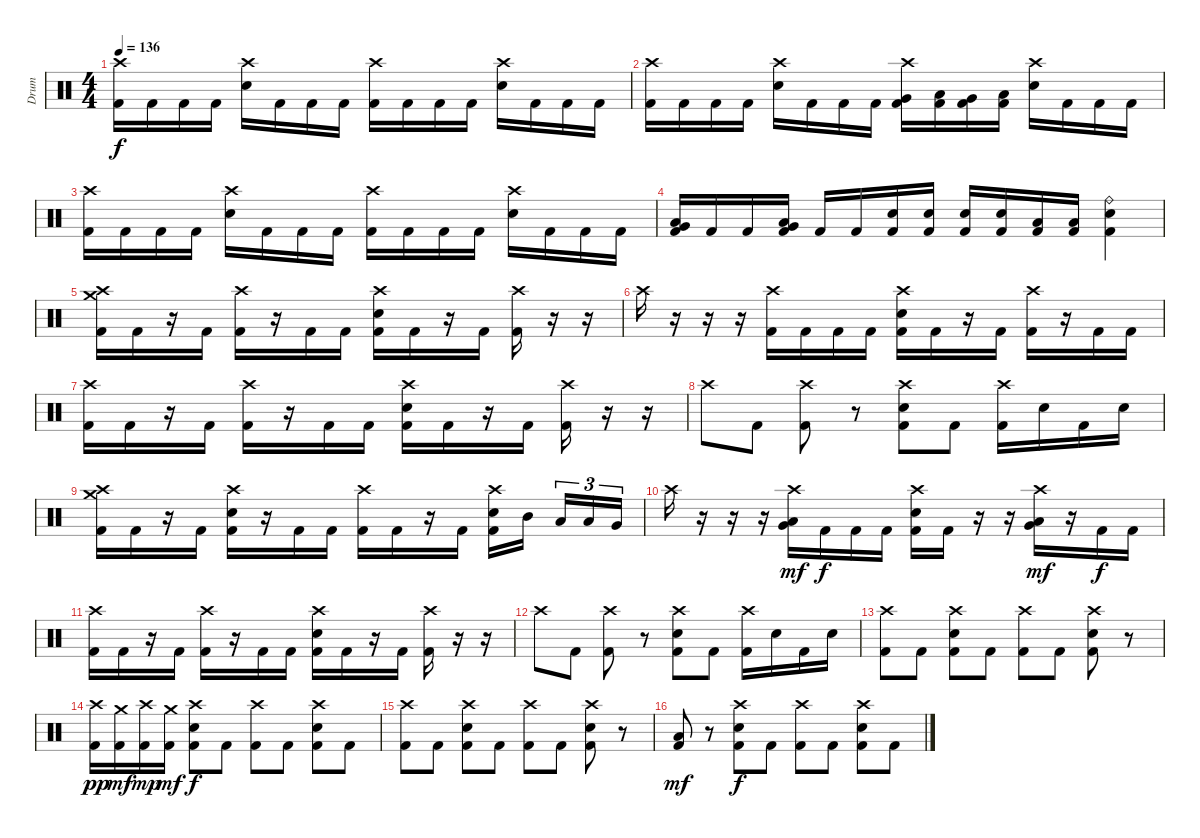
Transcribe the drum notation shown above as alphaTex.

\track ("Drum" "Drum") {instrument percussion}
\staff {score}
\articulation defaults
\ts (4 4)
\tempo 136
\clef neutral
\ks c
("Crash high (hit)" "Kick (hit) 2").16{dy f} "Kick (hit) 2".16 "Kick (hit) 2".16 "Kick (hit) 2".16 ("Crash high (hit)" "Electric Snare (hit)").16 "Kick (hit) 2".16 "Kick (hit) 2".16 "Kick (hit) 2".16 ("Crash high (hit)" "Kick (hit) 2").16 "Kick (hit) 2".16 "Kick (hit) 2".16 "Kick (hit) 2".16 ("Crash high (hit)" "Electric Snare (hit)").16 "Kick (hit) 2".16 "Kick (hit) 2".16 "Kick (hit) 2".16 |
("Crash high (hit)" "Kick (hit) 2").16 "Kick (hit) 2".16 "Kick (hit) 2".16 "Kick (hit) 2".16 ("Crash high (hit)" "Electric Snare (hit)").16 "Kick (hit) 2".16 "Kick (hit) 2".16 "Kick (hit) 2".16 ("Crash high (hit)" "Very Low Tom (hit)" "Kick (hit) 2").16 ("Low Floor Tom (hit)" "Kick (hit) 2").16 ("Very Low Tom (hit)" "Kick (hit) 2").16 ("Low Floor Tom (hit)" "Kick (hit) 2").16 ("Crash high (hit)" "Electric Snare (hit)").16 "Kick (hit) 2".16 "Kick (hit) 2".16 "Kick (hit) 2".16 |
("Crash high (hit)" "Kick (hit) 2").16 "Kick (hit) 2".16 "Kick (hit) 2".16 "Kick (hit) 2".16 ("Crash high (hit)" "Electric Snare (hit)").16 "Kick (hit) 2".16 "Kick (hit) 2".16 "Kick (hit) 2".16 ("Crash high (hit)" "Kick (hit) 2").16 "Kick (hit) 2".16 "Kick (hit) 2".16 "Kick (hit) 2".16 ("Crash high (hit)" "Electric Snare (hit)").16 "Kick (hit) 2".16 "Kick (hit) 2".16 "Kick (hit) 2".16 |
("Low Tom (hit)" "Very Low Tom (hit)" "Kick (hit) 2").16 "Kick (hit) 2".16 "Kick (hit) 2".16 ("Low Floor Tom (hit)" "Very Low Tom (hit)" "Kick (hit) 2").16 "Kick (hit) 2".16 "Kick (hit) 2".16 ("Electric Snare (hit)" "Kick (hit) 2").16 ("Electric Snare (hit)" "Kick (hit) 2").16 ("Electric Snare (hit)" "Kick (hit) 2").16 ("Electric Snare (hit)" "Kick (hit) 2").16 ("Low Floor Tom (hit)" "Kick (hit) 2").16 ("Low Floor Tom (hit)" "Kick (hit) 2").16 ("Ride (bell)" "Electric Snare (hit)" "Kick (hit) 2").4 |
("Crash medium (hit)" "Crash high (hit)" "Kick (hit) 2").16 "Kick (hit) 2".16 r.16 "Kick (hit) 2".16 ("Crash high (hit)" "Kick (hit) 2").16 r.16 "Kick (hit) 2".16 "Kick (hit) 2".16 ("Crash high (hit)" "Electric Snare (hit)" "Kick (hit) 2").16 "Kick (hit) 2".16 r.16 "Kick (hit) 2".16 ("Crash high (hit)" "Kick (hit) 2").16 r.16 r.16 |
"Crash high (hit)".16 r.16 r.16 r.16 ("Crash high (hit)" "Kick (hit) 2").16 "Kick (hit) 2".16 "Kick (hit) 2".16 "Kick (hit) 2".16 ("Crash high (hit)" "Electric Snare (hit)" "Kick (hit) 2").16 "Kick (hit) 2".16 r.16 "Kick (hit) 2".16 ("Crash high (hit)" "Kick (hit) 2").16 r.16 "Kick (hit) 2".16 "Kick (hit) 2".16 |
("Crash high (hit)" "Kick (hit) 2").16 "Kick (hit) 2".16 r.16 "Kick (hit) 2".16 ("Crash high (hit)" "Kick (hit) 2").16 r.16 "Kick (hit) 2".16 "Kick (hit) 2".16 ("Crash high (hit)" "Electric Snare (hit)" "Kick (hit) 2").16 "Kick (hit) 2".16 r.16 "Kick (hit) 2".16 ("Crash high (hit)" "Kick (hit) 2").16 r.16 r.16 |
"Crash high (hit)".8 "Kick (hit) 2".8 ("Crash high (hit)" "Kick (hit) 2").8 r.8 ("Crash high (hit)" "Electric Snare (hit)" "Kick (hit) 2").8 "Kick (hit) 2".8 ("Crash high (hit)" "Kick (hit) 2").16 "Electric Snare (hit)".16 "Kick (hit) 2".16 "Electric Snare (hit)".16 |
("Crash medium (hit)" "Crash high (hit)" "Kick (hit) 2").16 "Kick (hit) 2".16 r.16 "Kick (hit) 2".16 ("Crash high (hit)" "Electric Snare (hit)" "Kick (hit) 2").16 r.16 "Kick (hit) 2".16 "Kick (hit) 2".16 ("Crash high (hit)" "Kick (hit) 2").16 "Kick (hit) 2".16 r.16 "Kick (hit) 2".16 ("Crash high (hit)" "Electric Snare (hit)" "Kick (hit) 2").16 "Mid Tom (hit)".16{beam splitsecondary} "Low Tom (hit)".16{tu (3 2)} "Low Tom (hit)".16{tu (3 2)} "Very Low Tom (hit)".16{tu (3 2)} |
"Crash high (hit)".16 r.16 r.16 r.16 ("Crash high (hit)" "Low Floor Tom (hit)" "Very Low Tom (hit)").16{dy mf} "Kick (hit) 2".16{dy f} "Kick (hit) 2".16 "Kick (hit) 2".16 ("Crash high (hit)" "Electric Snare (hit)" "Kick (hit) 2").16 "Kick (hit) 2".16 r.16 r.16 ("Crash high (hit)" "Very Low Tom (hit)" "Low Floor Tom (hit)").16{dy mf} r.16 "Kick (hit) 2".16{dy f} "Kick (hit) 2".16 |
("Crash high (hit)" "Kick (hit) 2").16 "Kick (hit) 2".16 r.16 "Kick (hit) 2".16 ("Crash high (hit)" "Kick (hit) 2").16 r.16 "Kick (hit) 2".16 "Kick (hit) 2".16 ("Crash high (hit)" "Electric Snare (hit)" "Kick (hit) 2").16 "Kick (hit) 2".16 r.16 "Kick (hit) 2".16 ("Crash high (hit)" "Kick (hit) 2").16 r.16 r.16 |
"Crash high (hit)".8 "Kick (hit) 2".8 ("Crash high (hit)" "Kick (hit) 2").8 r.8 ("Crash high (hit)" "Electric Snare (hit)" "Kick (hit) 2").8 "Kick (hit) 2".8 ("Crash high (hit)" "Kick (hit) 2").16 "Electric Snare (hit)".16 "Kick (hit) 2".16 "Electric Snare (hit)".16 |
("Crash high (hit)" "Kick (hit) 2").8 "Kick (hit) 2".8 ("Crash high (hit)" "Electric Snare (hit)" "Kick (hit) 2").8 "Kick (hit) 2".8 ("Crash high (hit)" "Kick (hit) 2").8 "Kick (hit) 2".8 ("Crash high (hit)" "Electric Snare (hit)" "Kick (hit) 2").8 r.8 |
("Crash high (hit)" "Kick (hit) 2").16{dy pp} ("Crash medium (hit)" "Kick (hit) 2").16{dy mf} ("Crash high (hit)" "Kick (hit) 2").16{dy mp} ("Crash medium (hit)" "Kick (hit) 2").16{dy mf} ("Crash high (hit)" "Electric Snare (hit)" "Kick (hit) 2").8{dy f} "Kick (hit) 2".8 ("Crash high (hit)" "Kick (hit) 2").8 "Kick (hit) 2".8 ("Crash high (hit)" "Electric Snare (hit)" "Kick (hit) 2").8 "Kick (hit) 2".8 |
("Crash high (hit)" "Kick (hit) 2").8 "Kick (hit) 2".8 ("Crash high (hit)" "Electric Snare (hit)" "Kick (hit) 2").8 "Kick (hit) 2".8 ("Crash high (hit)" "Kick (hit) 2").8 "Kick (hit) 2".8 ("Crash high (hit)" "Electric Snare (hit)" "Kick (hit) 2").8 r.8 |
("Low Tom (hit)" "Kick (hit) 2").8{dy mf} r.8 ("Crash high (hit)" "Electric Snare (hit)" "Kick (hit) 2").8{dy f} "Kick (hit) 2".8 ("Crash high (hit)" "Kick (hit) 2").8 "Kick (hit) 2".8 ("Crash high (hit)" "Electric Snare (hit)" "Kick (hit) 2").8 "Kick (hit) 2".8
